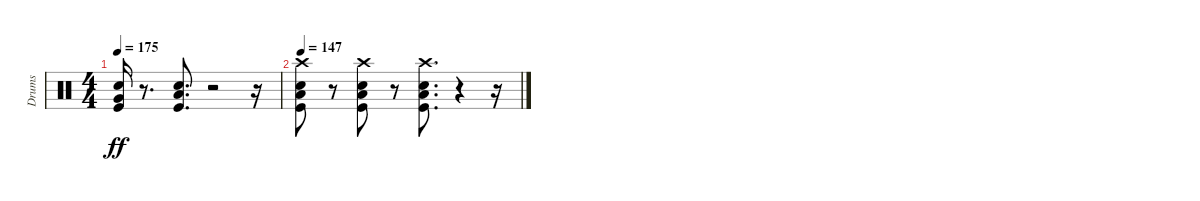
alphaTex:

\track ("Drums" "Drums") {instrument percussion}
\staff {score}
\articulation defaults
\ts (4 4)
\tempo 175
\clef neutral
\ks c
("Kick (hit)" "Very Low Tom (hit)" "Electric Snare (hit)").16{dy ff} r.8{d} ("Low Floor Tom (hit)" "Electric Snare (hit)" "Kick (hit)").8{d} r.2 r.16 |
\tempo 147
("Low Tom (hit)" "Kick (hit)" "Crash high (hit)" "Electric Snare (hit)").8 r.8 ("Low Tom (hit)" "Crash high (hit)" "Electric Snare (hit)" "Kick (hit)").8 r.8 ("Low Tom (hit)" "Crash high (hit)" "Electric Snare (hit)" "Kick (hit)").8{d} r.4 r.16
